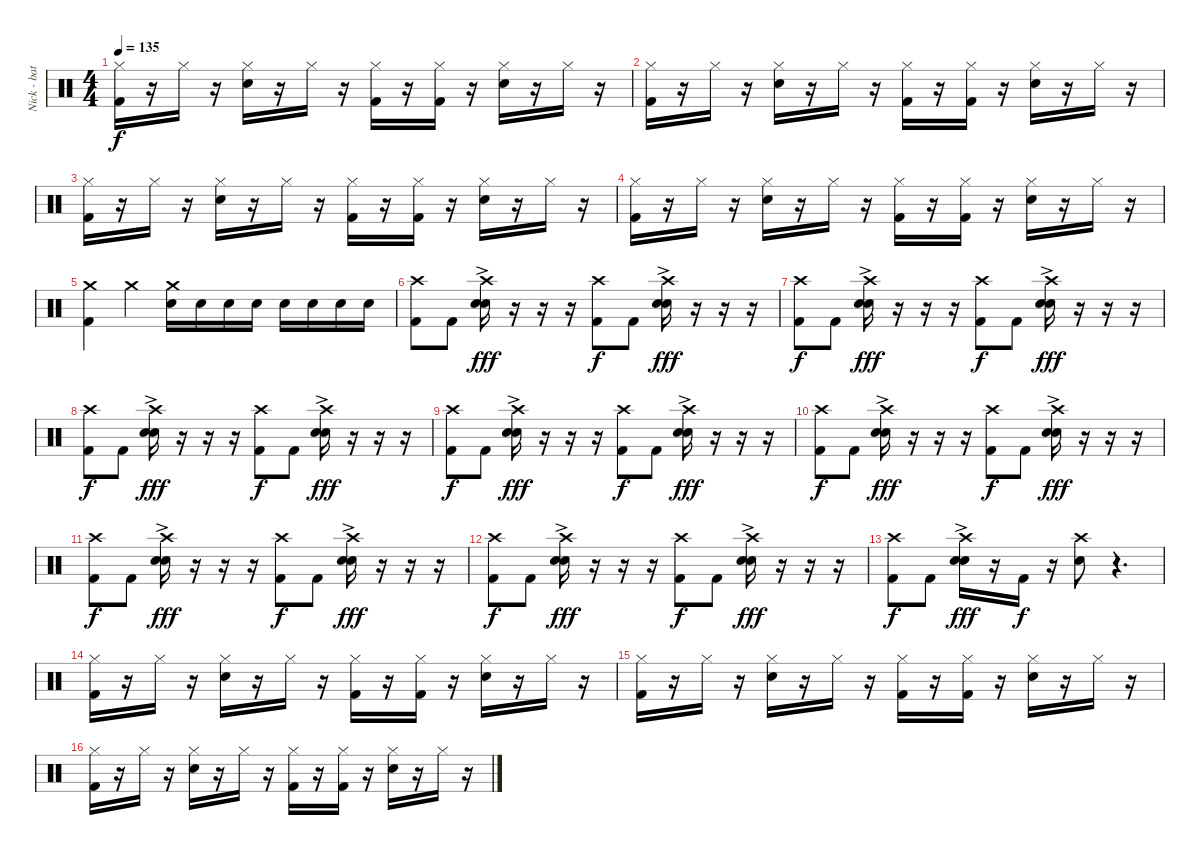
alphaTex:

\track ("Nick - batterie" "Nick - bat") {instrument percussion}
\staff {score}
\articulation defaults
\ts (4 4)
\tempo 135
\clef neutral
\ks c
("Hi-Hat (closed)" "Kick (hit) 2").16{dy f} r.16 "Hi-Hat (closed)".16 r.16 ("Hi-Hat (closed)" "Electric Snare (hit)").16 r.16 "Hi-Hat (closed)".16 r.16 ("Hi-Hat (closed)" "Kick (hit) 2").16 r.16 ("Hi-Hat (closed)" "Kick (hit) 2").16 r.16 ("Hi-Hat (closed)" "Electric Snare (hit)").16 r.16 "Hi-Hat (closed)".16 r.16 |
("Hi-Hat (closed)" "Kick (hit) 2").16 r.16 "Hi-Hat (closed)".16 r.16 ("Hi-Hat (closed)" "Electric Snare (hit)").16 r.16 "Hi-Hat (closed)".16 r.16 ("Hi-Hat (closed)" "Kick (hit) 2").16 r.16 ("Hi-Hat (closed)" "Kick (hit) 2").16 r.16 ("Hi-Hat (closed)" "Electric Snare (hit)").16 r.16 "Hi-Hat (closed)".16 r.16 |
("Hi-Hat (closed)" "Kick (hit) 2").16 r.16 "Hi-Hat (closed)".16 r.16 ("Hi-Hat (closed)" "Electric Snare (hit)").16 r.16 "Hi-Hat (closed)".16 r.16 ("Hi-Hat (closed)" "Kick (hit) 2").16 r.16 ("Hi-Hat (closed)" "Kick (hit) 2").16 r.16 ("Hi-Hat (closed)" "Electric Snare (hit)").16 r.16 "Hi-Hat (closed)".16 r.16 |
("Hi-Hat (closed)" "Kick (hit) 2").16 r.16 "Hi-Hat (closed)".16 r.16 ("Hi-Hat (closed)" "Electric Snare (hit)").16 r.16 "Hi-Hat (closed)".16 r.16 ("Hi-Hat (closed)" "Kick (hit) 2").16 r.16 ("Hi-Hat (closed)" "Kick (hit) 2").16 r.16 ("Hi-Hat (closed)" "Electric Snare (hit)").16 r.16 "Hi-Hat (closed)".16 r.16 |
("Crash medium (hit)" "Kick (hit) 2").4 "Crash medium (hit)".4 ("Crash medium (hit)" "Electric Snare (hit)").16 "Electric Snare (hit)".16 "Electric Snare (hit)".16 "Electric Snare (hit)".16 "Electric Snare (hit)".16 "Electric Snare (hit)".16 "Electric Snare (hit)".16 "Electric Snare (hit)".16 |
("Crash high (hit)" "Kick (hit) 2").8 "Kick (hit) 2".8 ("Crash high (hit)" "Electric Snare (hit)"{ac} "Electric Snare (hit)").16{dy fff} r.16 r.16 r.16 ("Crash high (hit)" "Kick (hit) 2").8{dy f} "Kick (hit) 2".8 ("Crash high (hit)" "Electric Snare (hit)"{ac} "Electric Snare (hit)").16{dy fff} r.16 r.16 r.16 |
("Crash high (hit)" "Kick (hit) 2").8{dy f} "Kick (hit) 2".8 ("Crash high (hit)" "Electric Snare (hit)"{ac} "Electric Snare (hit)").16{dy fff} r.16 r.16 r.16 ("Crash high (hit)" "Kick (hit) 2").8{dy f} "Kick (hit) 2".8 ("Crash high (hit)" "Electric Snare (hit)"{ac} "Electric Snare (hit)").16{dy fff} r.16 r.16 r.16 |
("Crash high (hit)" "Kick (hit) 2").8{dy f} "Kick (hit) 2".8 ("Crash high (hit)" "Electric Snare (hit)"{ac} "Electric Snare (hit)").16{dy fff} r.16 r.16 r.16 ("Crash high (hit)" "Kick (hit) 2").8{dy f} "Kick (hit) 2".8 ("Crash high (hit)" "Electric Snare (hit)"{ac} "Electric Snare (hit)").16{dy fff} r.16 r.16 r.16 |
("Crash high (hit)" "Kick (hit) 2").8{dy f} "Kick (hit) 2".8 ("Crash high (hit)" "Electric Snare (hit)"{ac} "Electric Snare (hit)").16{dy fff} r.16 r.16 r.16 ("Crash high (hit)" "Kick (hit) 2").8{dy f} "Kick (hit) 2".8 ("Crash high (hit)" "Electric Snare (hit)"{ac} "Electric Snare (hit)").16{dy fff} r.16 r.16 r.16 |
("Crash high (hit)" "Kick (hit) 2").8{dy f} "Kick (hit) 2".8 ("Crash high (hit)" "Electric Snare (hit)"{ac} "Electric Snare (hit)").16{dy fff} r.16 r.16 r.16 ("Crash high (hit)" "Kick (hit) 2").8{dy f} "Kick (hit) 2".8 ("Crash high (hit)" "Electric Snare (hit)"{ac} "Electric Snare (hit)").16{dy fff} r.16 r.16 r.16 |
("Crash high (hit)" "Kick (hit) 2").8{dy f} "Kick (hit) 2".8 ("Crash high (hit)" "Electric Snare (hit)"{ac} "Electric Snare (hit)").16{dy fff} r.16 r.16 r.16 ("Crash high (hit)" "Kick (hit) 2").8{dy f} "Kick (hit) 2".8 ("Crash high (hit)" "Electric Snare (hit)"{ac} "Electric Snare (hit)").16{dy fff} r.16 r.16 r.16 |
("Crash high (hit)" "Kick (hit) 2").8{dy f} "Kick (hit) 2".8 ("Crash high (hit)" "Electric Snare (hit)"{ac} "Electric Snare (hit)").16{dy fff} r.16 r.16 r.16 ("Crash high (hit)" "Kick (hit) 2").8{dy f} "Kick (hit) 2".8 ("Crash high (hit)" "Electric Snare (hit)"{ac} "Electric Snare (hit)").16{dy fff} r.16 r.16 r.16 |
("Crash high (hit)" "Kick (hit) 2").8{dy f} "Kick (hit) 2".8 ("Crash high (hit)" "Electric Snare (hit)"{ac} "Electric Snare (hit)").16{dy fff} r.16 "Kick (hit) 2".16{dy f} r.16 ("Crash high (hit)" "Electric Snare (hit)").8 r.4{d} |
("Hi-Hat (closed)" "Kick (hit) 2").16 r.16 "Hi-Hat (closed)".16 r.16 ("Hi-Hat (closed)" "Electric Snare (hit)").16 r.16 "Hi-Hat (closed)".16 r.16 ("Hi-Hat (closed)" "Kick (hit) 2").16 r.16 ("Hi-Hat (closed)" "Kick (hit) 2").16 r.16 ("Hi-Hat (closed)" "Electric Snare (hit)").16 r.16 "Hi-Hat (closed)".16 r.16 |
("Hi-Hat (closed)" "Kick (hit) 2").16 r.16 "Hi-Hat (closed)".16 r.16 ("Hi-Hat (closed)" "Electric Snare (hit)").16 r.16 "Hi-Hat (closed)".16 r.16 ("Hi-Hat (closed)" "Kick (hit) 2").16 r.16 ("Hi-Hat (closed)" "Kick (hit) 2").16 r.16 ("Hi-Hat (closed)" "Electric Snare (hit)").16 r.16 "Hi-Hat (closed)".16 r.16 |
("Hi-Hat (closed)" "Kick (hit) 2").16 r.16 "Hi-Hat (closed)".16 r.16 ("Hi-Hat (closed)" "Electric Snare (hit)").16 r.16 "Hi-Hat (closed)".16 r.16 ("Hi-Hat (closed)" "Kick (hit) 2").16 r.16 ("Hi-Hat (closed)" "Kick (hit) 2").16 r.16 ("Hi-Hat (closed)" "Electric Snare (hit)").16 r.16 "Hi-Hat (closed)".16 r.16
